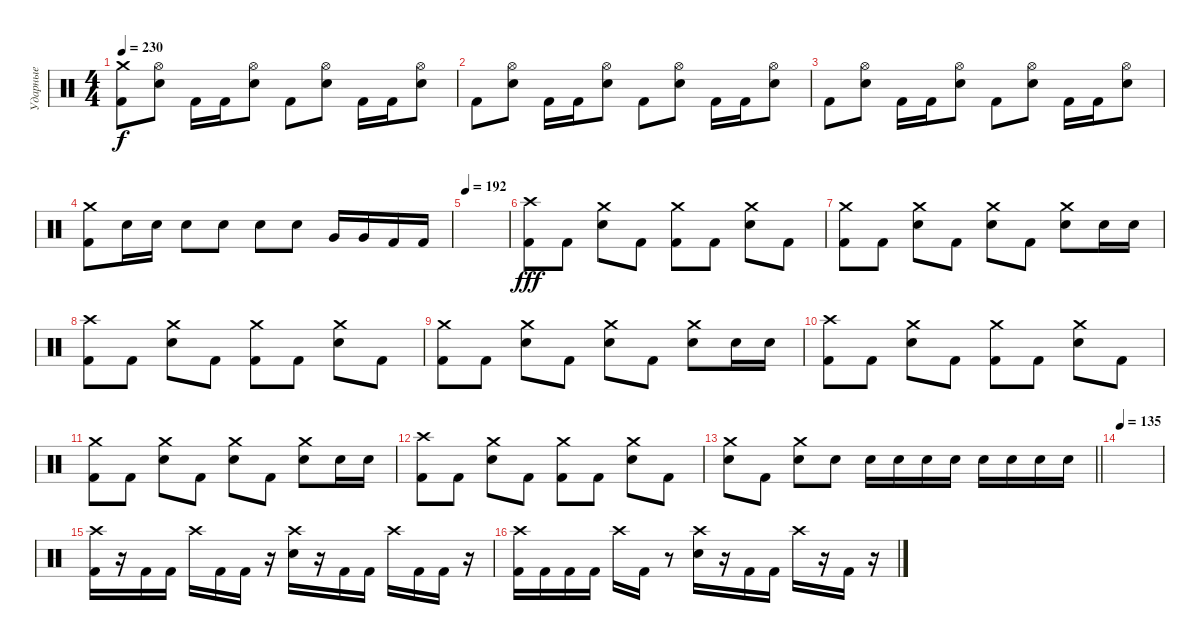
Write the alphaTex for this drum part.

\track ("Ударные" "Ударные") {instrument percussion}
\staff {score}
\articulation defaults
\ts (4 4)
\tempo 230
\clef neutral
\ks c
("Crash medium (hit)" "Kick (hit) 2").8{dy f} ("Hi-Hat (open)" "Electric Snare (hit)").8 "Kick (hit) 2".16 "Kick (hit) 2".16 ("Hi-Hat (open)" "Electric Snare (hit)").8 "Kick (hit) 2".8 ("Hi-Hat (open)" "Electric Snare (hit)").8 "Kick (hit) 2".16 "Kick (hit) 2".16 ("Hi-Hat (open)" "Electric Snare (hit)").8 |
"Kick (hit) 2".8 ("Hi-Hat (open)" "Electric Snare (hit)").8 "Kick (hit) 2".16 "Kick (hit) 2".16 ("Hi-Hat (open)" "Electric Snare (hit)").8 "Kick (hit) 2".8 ("Hi-Hat (open)" "Electric Snare (hit)").8 "Kick (hit) 2".16 "Kick (hit) 2".16 ("Hi-Hat (open)" "Electric Snare (hit)").8 |
"Kick (hit) 2".8 ("Hi-Hat (open)" "Electric Snare (hit)").8 "Kick (hit) 2".16 "Kick (hit) 2".16 ("Hi-Hat (open)" "Electric Snare (hit)").8 "Kick (hit) 2".8 ("Hi-Hat (open)" "Electric Snare (hit)").8 "Kick (hit) 2".16 "Kick (hit) 2".16 ("Hi-Hat (open)" "Electric Snare (hit)").8 |
("Crash medium (hit)" "Kick (hit) 2").8 "Electric Snare (hit)".16 "Electric Snare (hit)".16 "Electric Snare (hit)".8 "Electric Snare (hit)".8 "Electric Snare (hit)".8 "Electric Snare (hit)".8 "Very Low Tom (hit)".16 "Very Low Tom (hit)".16 "Kick (hit) 2".16 "Kick (hit) 2".16 |
\tempo 192
|
("Crash high (hit)" "Kick (hit) 2").8{dy fff} "Kick (hit) 2".8 ("Crash medium (hit)" "Electric Snare (hit)").8 "Kick (hit) 2".8 ("Crash medium (hit)" "Kick (hit) 2").8 "Kick (hit) 2".8 ("Crash medium (hit)" "Electric Snare (hit)").8 "Kick (hit) 2".8 |
("Crash medium (hit)" "Kick (hit) 2").8 "Kick (hit) 2".8 ("Crash medium (hit)" "Electric Snare (hit)").8 "Kick (hit) 2".8 ("Crash medium (hit)" "Electric Snare (hit)").8 "Kick (hit) 2".8 ("Crash medium (hit)" "Electric Snare (hit)").8 "Electric Snare (hit)".16 "Electric Snare (hit)".16 |
("Crash high (hit)" "Kick (hit) 2").8 "Kick (hit) 2".8 ("Crash medium (hit)" "Electric Snare (hit)").8 "Kick (hit) 2".8 ("Crash medium (hit)" "Kick (hit) 2").8 "Kick (hit) 2".8 ("Crash medium (hit)" "Electric Snare (hit)").8 "Kick (hit) 2".8 |
("Crash medium (hit)" "Kick (hit) 2").8 "Kick (hit) 2".8 ("Crash medium (hit)" "Electric Snare (hit)").8 "Kick (hit) 2".8 ("Crash medium (hit)" "Electric Snare (hit)").8 "Kick (hit) 2".8 ("Crash medium (hit)" "Electric Snare (hit)").8 "Electric Snare (hit)".16 "Electric Snare (hit)".16 |
("Crash high (hit)" "Kick (hit) 2").8 "Kick (hit) 2".8 ("Crash medium (hit)" "Electric Snare (hit)").8 "Kick (hit) 2".8 ("Crash medium (hit)" "Kick (hit) 2").8 "Kick (hit) 2".8 ("Crash medium (hit)" "Electric Snare (hit)").8 "Kick (hit) 2".8 |
("Crash medium (hit)" "Kick (hit) 2").8 "Kick (hit) 2".8 ("Crash medium (hit)" "Electric Snare (hit)").8 "Kick (hit) 2".8 ("Crash medium (hit)" "Electric Snare (hit)").8 "Kick (hit) 2".8 ("Crash medium (hit)" "Electric Snare (hit)").8 "Electric Snare (hit)".16 "Electric Snare (hit)".16 |
("Crash high (hit)" "Kick (hit) 2").8 "Kick (hit) 2".8 ("Crash medium (hit)" "Electric Snare (hit)").8 "Kick (hit) 2".8 ("Crash medium (hit)" "Kick (hit) 2").8 "Kick (hit) 2".8 ("Crash medium (hit)" "Electric Snare (hit)").8 "Kick (hit) 2".8 |
\barLineRight lightlight
("Crash medium (hit)" "Electric Snare (hit)").8 "Kick (hit) 2".8 ("Crash medium (hit)" "Electric Snare (hit)").8 "Electric Snare (hit)".8 "Electric Snare (hit)".16 "Electric Snare (hit)".16 "Electric Snare (hit)".16 "Electric Snare (hit)".16 "Electric Snare (hit)".16 "Electric Snare (hit)".16 "Electric Snare (hit)".16 "Electric Snare (hit)".16 |
\tempo 135
|
("Kick (hit) 2" "Crash high (hit)").16 r.16 "Kick (hit) 2".16 "Kick (hit) 2".16 "Crash high (hit)".16 "Kick (hit) 2".16 "Kick (hit) 2".16 r.16 ("Snare (hit) 2" "Crash high (hit)").16 r.16 "Kick (hit) 2".16 "Kick (hit) 2".16 "Crash high (hit)".16 "Kick (hit) 2".16 "Kick (hit) 2".16 r.16 |
("Kick (hit) 2" "Crash high (hit)").16 "Kick (hit) 2".16 "Kick (hit) 2".16 "Kick (hit) 2".16 "Crash high (hit)".16 "Kick (hit) 2".16 r.8 ("Snare (hit) 2" "Crash high (hit)").16 r.16 "Kick (hit) 2".16 "Kick (hit) 2".16 "Crash high (hit)".16 r.16 "Kick (hit) 2".16 r.16
